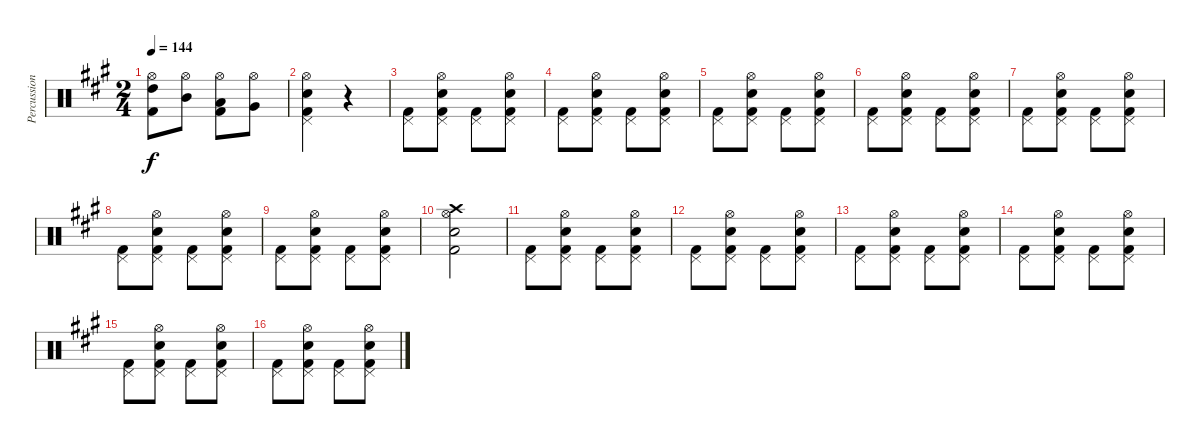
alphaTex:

\track ("Percussion" "Percussion") {instrument percussion}
\staff {score}
\articulation defaults
\ts (2 4)
\tempo 144
\clef neutral
\ks a
("Hi-Hat (open)" "High Tom (hit)" "Kick (hit) 2").8{dy f} ("Hi-Hat (open)" "Mid Tom (hit)").8 ("Hi-Hat (open)" "Low Tom (hit)" "Kick (hit) 2").8 ("Hi-Hat (open)" "Very Low Tom (hit)").8 |
("Pedal Hi-Hat (hit)" "Hi-Hat (open)" "Snare (hit) 2" "Kick (hit) 2").4 r.4 |
("Pedal Hi-Hat (hit)" "Kick (hit) 2").8 ("Pedal Hi-Hat (hit)" "Hi-Hat (open)" "Snare (hit) 2" "Kick (hit) 2").8 ("Pedal Hi-Hat (hit)" "Kick (hit) 2").8 ("Pedal Hi-Hat (hit)" "Hi-Hat (open)" "Snare (hit) 2" "Kick (hit) 2").8 |
("Pedal Hi-Hat (hit)" "Kick (hit) 2").8 ("Pedal Hi-Hat (hit)" "Hi-Hat (open)" "Snare (hit) 2" "Kick (hit) 2").8 ("Pedal Hi-Hat (hit)" "Kick (hit) 2").8 ("Pedal Hi-Hat (hit)" "Hi-Hat (open)" "Snare (hit) 2" "Kick (hit) 2").8 |
("Pedal Hi-Hat (hit)" "Kick (hit) 2").8 ("Pedal Hi-Hat (hit)" "Hi-Hat (open)" "Snare (hit) 2" "Kick (hit) 2").8 ("Pedal Hi-Hat (hit)" "Kick (hit) 2").8 ("Pedal Hi-Hat (hit)" "Hi-Hat (open)" "Snare (hit) 2" "Kick (hit) 2").8 |
("Pedal Hi-Hat (hit)" "Kick (hit) 2").8 ("Pedal Hi-Hat (hit)" "Hi-Hat (open)" "Snare (hit) 2" "Kick (hit) 2").8 ("Pedal Hi-Hat (hit)" "Kick (hit) 2").8 ("Pedal Hi-Hat (hit)" "Hi-Hat (open)" "Snare (hit) 2" "Kick (hit) 2").8 |
("Pedal Hi-Hat (hit)" "Kick (hit) 2").8 ("Pedal Hi-Hat (hit)" "Hi-Hat (open)" "Snare (hit) 2" "Kick (hit) 2").8 ("Pedal Hi-Hat (hit)" "Kick (hit) 2").8 ("Pedal Hi-Hat (hit)" "Hi-Hat (open)" "Snare (hit) 2" "Kick (hit) 2").8 |
("Pedal Hi-Hat (hit)" "Kick (hit) 2").8 ("Pedal Hi-Hat (hit)" "Hi-Hat (open)" "Snare (hit) 2" "Kick (hit) 2").8 ("Pedal Hi-Hat (hit)" "Kick (hit) 2").8 ("Pedal Hi-Hat (hit)" "Hi-Hat (open)" "Snare (hit) 2" "Kick (hit) 2").8 |
("Pedal Hi-Hat (hit)" "Kick (hit) 2").8 ("Pedal Hi-Hat (hit)" "Hi-Hat (open)" "Snare (hit) 2" "Kick (hit) 2").8 ("Pedal Hi-Hat (hit)" "Kick (hit) 2").8 ("Pedal Hi-Hat (hit)" "Hi-Hat (open)" "Snare (hit) 2" "Kick (hit) 2").8 |
("Crash high (hit)" "Hi-Hat (open)" "Snare (hit) 2" "Kick (hit) 2").2 |
("Pedal Hi-Hat (hit)" "Kick (hit) 2").8 ("Pedal Hi-Hat (hit)" "Hi-Hat (open)" "Snare (hit) 2" "Kick (hit) 2").8 ("Pedal Hi-Hat (hit)" "Kick (hit) 2").8 ("Pedal Hi-Hat (hit)" "Hi-Hat (open)" "Snare (hit) 2" "Kick (hit) 2").8 |
("Pedal Hi-Hat (hit)" "Kick (hit) 2").8 ("Pedal Hi-Hat (hit)" "Hi-Hat (open)" "Snare (hit) 2" "Kick (hit) 2").8 ("Pedal Hi-Hat (hit)" "Kick (hit) 2").8 ("Pedal Hi-Hat (hit)" "Hi-Hat (open)" "Snare (hit) 2" "Kick (hit) 2").8 |
("Pedal Hi-Hat (hit)" "Kick (hit) 2").8 ("Pedal Hi-Hat (hit)" "Hi-Hat (open)" "Snare (hit) 2" "Kick (hit) 2").8 ("Pedal Hi-Hat (hit)" "Kick (hit) 2").8 ("Pedal Hi-Hat (hit)" "Hi-Hat (open)" "Snare (hit) 2" "Kick (hit) 2").8 |
("Pedal Hi-Hat (hit)" "Kick (hit) 2").8 ("Pedal Hi-Hat (hit)" "Hi-Hat (open)" "Snare (hit) 2" "Kick (hit) 2").8 ("Pedal Hi-Hat (hit)" "Kick (hit) 2").8 ("Pedal Hi-Hat (hit)" "Hi-Hat (open)" "Snare (hit) 2" "Kick (hit) 2").8 |
("Pedal Hi-Hat (hit)" "Kick (hit) 2").8 ("Pedal Hi-Hat (hit)" "Hi-Hat (open)" "Snare (hit) 2" "Kick (hit) 2").8 ("Pedal Hi-Hat (hit)" "Kick (hit) 2").8 ("Pedal Hi-Hat (hit)" "Hi-Hat (open)" "Snare (hit) 2" "Kick (hit) 2").8 |
("Pedal Hi-Hat (hit)" "Kick (hit) 2").8 ("Pedal Hi-Hat (hit)" "Hi-Hat (open)" "Snare (hit) 2" "Kick (hit) 2").8 ("Pedal Hi-Hat (hit)" "Kick (hit) 2").8 ("Pedal Hi-Hat (hit)" "Hi-Hat (open)" "Snare (hit) 2" "Kick (hit) 2").8
